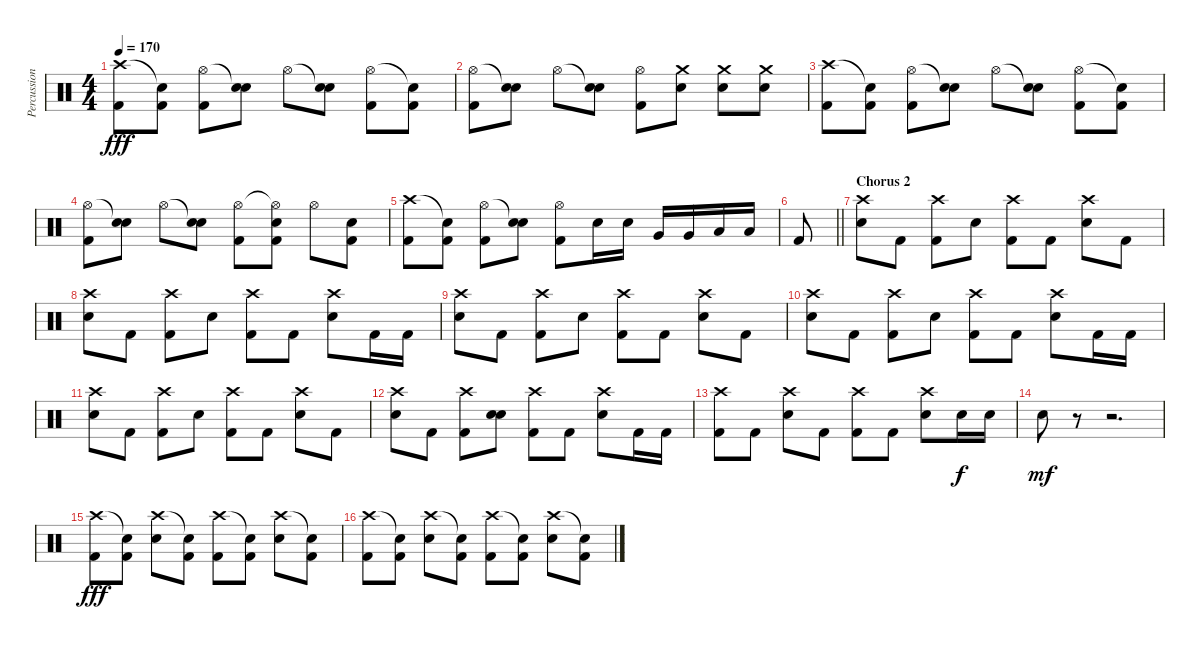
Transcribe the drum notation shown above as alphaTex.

\track ("Percussion" "Percussion") {instrument percussion}
\staff {score}
\articulation defaults
\ts (4 4)
\tempo 170
\clef neutral
\ks c
("Crash high (hit)" "Kick (hit) 2").8{dy fff} ("Snare (hit)"{t} "Kick (hit) 2").8 ("Hi-Hat (open)" "Kick (hit) 2").8 ("Snare (hit)"{t} "Electric Snare (hit)").8 "Hi-Hat (open)".8 ("Snare (hit)"{t} "Electric Snare (hit)").8 ("Hi-Hat (open)" "Kick (hit) 2").8 ("Snare (hit)"{t} "Kick (hit) 2").8 |
("Hi-Hat (open)" "Kick (hit) 2").8 ("Snare (hit)"{t} "Electric Snare (hit)").8 "Hi-Hat (open)".8 ("Snare (hit)"{t} "Electric Snare (hit)").8 ("Hi-Hat (open)" "Kick (hit) 2").8 ("Crash medium (hit)" "Electric Snare (hit)").8 ("Crash medium (hit)" "Electric Snare (hit)").8 ("Crash medium (hit)" "Electric Snare (hit)").8 |
("Crash high (hit)" "Kick (hit) 2").8 ("Snare (hit)"{t} "Kick (hit) 2").8 ("Hi-Hat (open)" "Kick (hit) 2").8 ("Snare (hit)"{t} "Electric Snare (hit)").8 "Hi-Hat (open)".8 ("Snare (hit)"{t} "Electric Snare (hit)").8 ("Hi-Hat (open)" "Kick (hit) 2").8 ("Snare (hit)"{t} "Kick (hit) 2").8 |
("Hi-Hat (open)" "Kick (hit) 2").8 ("Snare (hit)"{t} "Electric Snare (hit)").8 "Hi-Hat (open)".8 ("Snare (hit)"{t} "Electric Snare (hit)").8 ("Hi-Hat (open)" "Kick (hit) 2").8 ("Hi-Hat (open)"{t} "Electric Snare (hit)" "Kick (hit) 2").8 "Hi-Hat (open)".8 ("Electric Snare (hit)" "Kick (hit) 2").8 |
("Crash high (hit)" "Kick (hit) 2").8 ("Snare (hit)"{t} "Kick (hit) 2").8 ("Hi-Hat (open)" "Kick (hit) 2").8 ("Snare (hit)"{t} "Electric Snare (hit)").8 ("Hi-Hat (open)" "Kick (hit) 2").8 "Electric Snare (hit)".16 "Electric Snare (hit)".16 "Very Low Tom (hit)".16 "Very Low Tom (hit)".16 "Low Floor Tom (hit)".16 "Low Floor Tom (hit)".16 |
\barLineRight lightlight "Kick (hit) 2".8
|
\section ("" "Chorus 2")
("Crash high (hit)" "Electric Snare (hit)").8 "Kick (hit) 2".8 ("Crash high (hit)" "Kick (hit) 2").8 "Electric Snare (hit)".8 ("Crash high (hit)" "Kick (hit) 2").8 "Kick (hit) 2".8 ("Crash high (hit)" "Electric Snare (hit)").8 "Kick (hit) 2".8 |
("Crash high (hit)" "Electric Snare (hit)").8 "Kick (hit) 2".8 ("Crash high (hit)" "Kick (hit) 2").8 "Electric Snare (hit)".8 ("Crash high (hit)" "Kick (hit) 2").8 "Kick (hit) 2".8 ("Crash high (hit)" "Electric Snare (hit)").8 "Kick (hit) 2".16 "Kick (hit) 2".16 |
("Crash high (hit)" "Electric Snare (hit)").8 "Kick (hit) 2".8 ("Crash high (hit)" "Kick (hit) 2").8 "Electric Snare (hit)".8 ("Crash high (hit)" "Kick (hit) 2").8 "Kick (hit) 2".8 ("Crash high (hit)" "Electric Snare (hit)").8 "Kick (hit) 2".8 |
("Crash high (hit)" "Electric Snare (hit)").8 "Kick (hit) 2".8 ("Crash high (hit)" "Kick (hit) 2").8 "Electric Snare (hit)".8 ("Crash high (hit)" "Kick (hit) 2").8 "Kick (hit) 2".8 ("Crash high (hit)" "Electric Snare (hit)").8 "Kick (hit) 2".16 "Kick (hit) 2".16 |
("Crash high (hit)" "Electric Snare (hit)").8 "Kick (hit) 2".8 ("Crash high (hit)" "Kick (hit) 2").8 "Electric Snare (hit)".8 ("Crash high (hit)" "Kick (hit) 2").8 "Kick (hit) 2".8 ("Crash high (hit)" "Electric Snare (hit)").8 "Kick (hit) 2".8 |
("Crash high (hit)" "Electric Snare (hit)").8 "Kick (hit) 2".8 ("Crash high (hit)" "Kick (hit) 2").8 ("Electric Snare (hit)" "Snare (hit)").8 ("Crash high (hit)" "Kick (hit) 2").8 "Kick (hit) 2".8 ("Crash high (hit)" "Electric Snare (hit)").8 "Kick (hit) 2".16 "Kick (hit) 2".16 |
("Crash high (hit)" "Kick (hit) 2").8 "Kick (hit) 2".8 ("Crash high (hit)" "Electric Snare (hit)").8 "Kick (hit) 2".8 ("Crash high (hit)" "Kick (hit) 2").8 "Kick (hit) 2".8 ("Crash high (hit)" "Electric Snare (hit)").8 "Electric Snare (hit)".16{dy f} "Electric Snare (hit)".16 |
"Electric Snare (hit)".8{dy mf} r.8 r.2{d} |
("Crash high (hit)" "Kick (hit) 2").8{dy fff} ("Snare (hit)"{t} "Kick (hit) 2").8 ("Crash high (hit)" "Electric Snare (hit)").8 ("Snare (hit)"{t} "Kick (hit) 2").8 ("Crash high (hit)" "Kick (hit) 2").8 ("Snare (hit)"{t} "Kick (hit) 2").8 ("Crash high (hit)" "Electric Snare (hit)").8 ("Snare (hit)"{t} "Kick (hit) 2").8 |
("Crash high (hit)" "Kick (hit) 2").8 ("Snare (hit)"{t} "Kick (hit) 2").8 ("Crash high (hit)" "Electric Snare (hit)").8 ("Snare (hit)"{t} "Kick (hit) 2").8 ("Crash high (hit)" "Kick (hit) 2").8 ("Snare (hit)"{t} "Kick (hit) 2").8 ("Crash high (hit)" "Electric Snare (hit)").8 ("Snare (hit)"{t} "Kick (hit) 2").8
